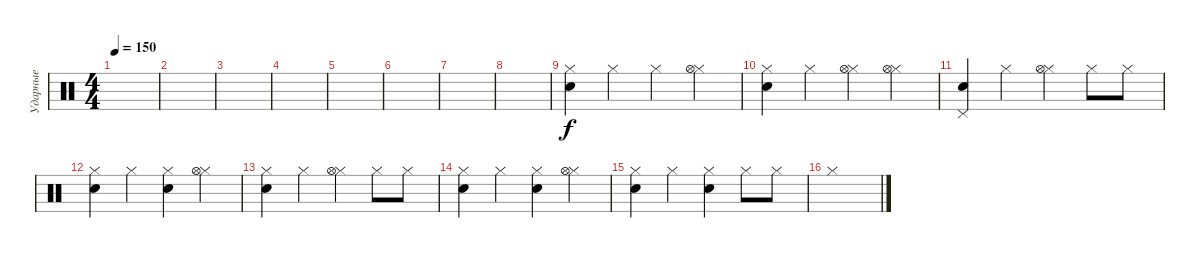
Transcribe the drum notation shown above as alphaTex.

\track ("Ударные" "Ударные") {instrument percussion}
\staff {score}
\articulation defaults
\ts (4 4)
\tempo 150
\clef neutral
\ks c
|
|
|
|
|
|
|
|
("Hi-Hat (closed)" "Snare (hit) 2").4 "Hi-Hat (closed)".4 "Hi-Hat (closed)".4 ("Hi-Hat (closed)" "Hi-Hat (open)").4 |
("Hi-Hat (closed)" "Snare (hit) 2").4 "Hi-Hat (closed)".4 ("Hi-Hat (closed)" "Hi-Hat (open)").4 ("Hi-Hat (closed)" "Hi-Hat (open)").4 |
("Pedal Hi-Hat (hit)" "Snare (hit) 2").4 "Hi-Hat (closed)".4 ("Hi-Hat (closed)" "Hi-Hat (open)").4 "Hi-Hat (closed)".8 "Hi-Hat (closed)".8 |
("Hi-Hat (closed)" "Snare (hit) 2").4 "Hi-Hat (closed)".4 ("Hi-Hat (closed)" "Snare (hit) 2").4 ("Hi-Hat (closed)" "Hi-Hat (open)").4 |
("Hi-Hat (closed)" "Snare (hit) 2").4 "Hi-Hat (closed)".4 ("Hi-Hat (closed)" "Hi-Hat (open)").4 "Hi-Hat (closed)".8 "Hi-Hat (closed)".8 |
("Hi-Hat (closed)" "Snare (hit) 2").4 "Hi-Hat (closed)".4 ("Hi-Hat (closed)" "Snare (hit) 2").4 ("Hi-Hat (closed)" "Hi-Hat (open)").4 |
("Hi-Hat (closed)" "Snare (hit) 2").4 "Hi-Hat (closed)".4 ("Hi-Hat (closed)" "Snare (hit) 2").4 "Hi-Hat (closed)".8 "Hi-Hat (closed)".8 |
"Hi-Hat (closed)".1
